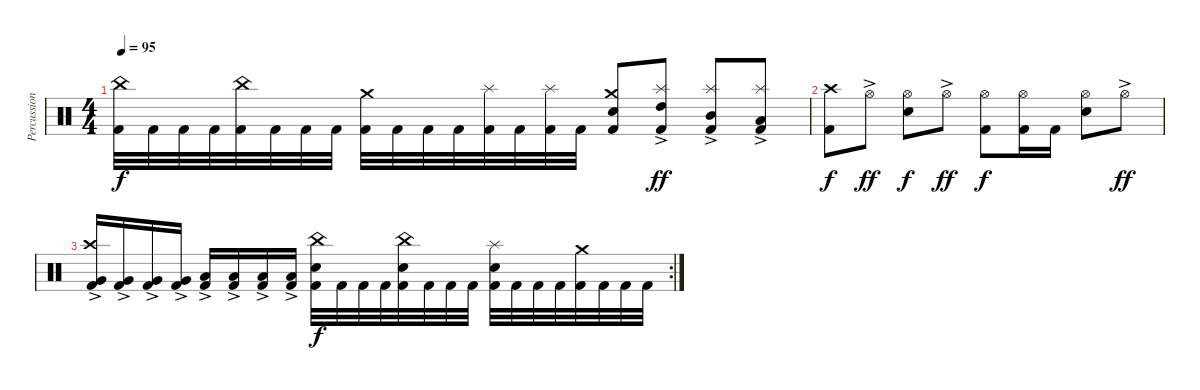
\track ("Percussion" "Percussion") {instrument percussion}
\staff {score}
\articulation defaults
\ts (4 4)
\tempo 95
\clef neutral
\ks c
("China (hit)" "Kick (hit) 2").32{dy f} "Kick (hit) 2".32 "Kick (hit) 2".32 "Kick (hit) 2".32 ("China (hit)" "Kick (hit) 2").32 "Kick (hit) 2".32 "Kick (hit) 2".32 "Kick (hit) 2".32 ("Crash medium (hit)" "Kick (hit) 2").32 "Kick (hit) 2".32 "Kick (hit) 2".32 "Kick (hit) 2".32 ("Splash (hit)" "Kick (hit) 2").32 "Kick (hit) 2".32 ("Splash (hit)" "Kick (hit) 2").32 "Kick (hit) 2".32 ("Crash medium (hit)" "Electric Snare (hit)" "Kick (hit) 2").8 ("Splash (hit)" "High Tom (hit)"{ac} "Kick (hit) 2").8{dy ff} ("Splash (hit)" "Mid Tom (hit)"{ac} "Kick (hit) 2").8 ("Splash (hit)" "Low Tom (hit)"{ac} "Kick (hit) 2").8 |
("Crash high (hit)" "Kick (hit) 2").8{dy f} "Hi-Hat (open)"{ac}.8{dy ff} ("Hi-Hat (open)" "Electric Snare (hit)").8{dy f} "Hi-Hat (open)"{ac}.8{dy ff} ("Hi-Hat (open)" "Kick (hit) 2").8{dy f} ("Hi-Hat (open)" "Kick (hit) 2").16 "Kick (hit) 2".16 ("Hi-Hat (open)" "Electric Snare (hit)").8 "Hi-Hat (open)"{ac}.8{dy ff} |
\rc 2
("Crash high (hit)" "Very Low Tom (hit)"{ac} "Kick (hit) 2").16 ("Very Low Tom (hit)"{ac} "Kick (hit) 2").16 ("Very Low Tom (hit)"{ac} "Kick (hit) 2").16 ("Very Low Tom (hit)"{ac} "Kick (hit) 2").16 ("Low Floor Tom (hit)"{ac} "Kick (hit) 2").16 ("Low Floor Tom (hit)"{ac} "Kick (hit) 2").16 ("Low Floor Tom (hit)"{ac} "Kick (hit) 2").16 ("Low Floor Tom (hit)"{ac} "Kick (hit) 2").16 ("China (hit)" "Electric Snare (hit)" "Kick (hit) 2").32{dy f} "Kick (hit) 2".32 "Kick (hit) 2".32 "Kick (hit) 2".32 ("China (hit)" "Electric Snare (hit)" "Kick (hit) 2").32 "Kick (hit) 2".32 "Kick (hit) 2".32 "Kick (hit) 2".32 ("Splash (hit)" "Electric Snare (hit)" "Kick (hit) 2").32 "Kick (hit) 2".32 "Kick (hit) 2".32 "Kick (hit) 2".32 ("Crash medium (hit)" "Kick (hit) 2").32 "Kick (hit) 2".32 "Kick (hit) 2".32 "Kick (hit) 2".32
